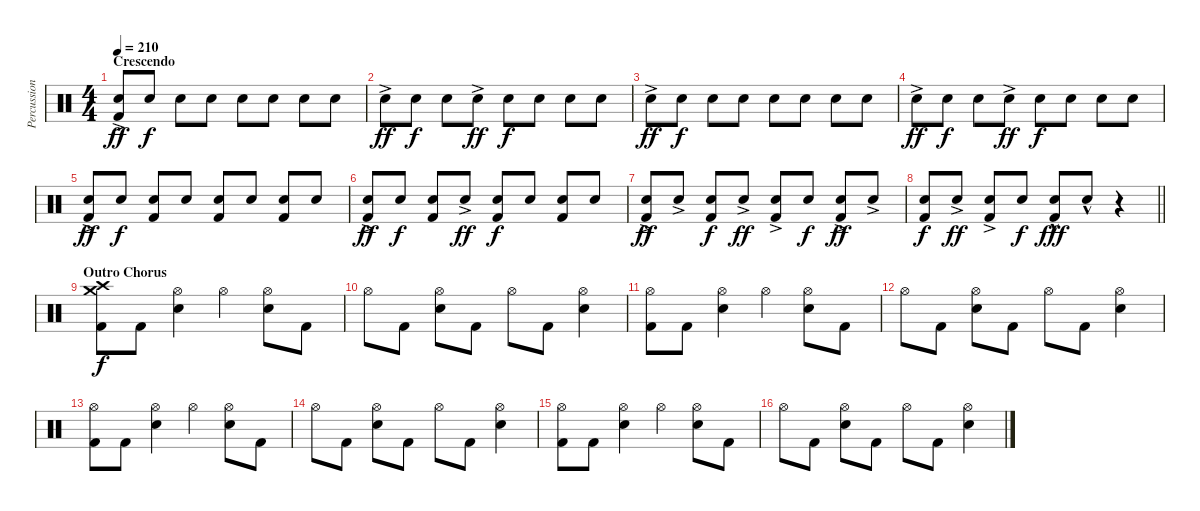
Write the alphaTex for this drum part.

\track ("Percussion" "Percussion") {instrument percussion}
\staff {score}
\articulation defaults
\ts (4 4)
\section ("" "Crescendo")
\tempo 210
\clef neutral
\ks c
("Electric Snare (hit)"{ac} "Kick (hit) 2").8{dy ff} "Electric Snare (hit)".8{dy f} "Electric Snare (hit)".8 "Electric Snare (hit)".8 "Electric Snare (hit)".8 "Electric Snare (hit)".8 "Electric Snare (hit)".8 "Electric Snare (hit)".8 |
"Electric Snare (hit)"{ac}.8{dy ff} "Electric Snare (hit)".8{dy f} "Electric Snare (hit)".8 "Electric Snare (hit)"{ac}.8{dy ff} "Electric Snare (hit)".8{dy f} "Electric Snare (hit)".8 "Electric Snare (hit)".8 "Electric Snare (hit)".8 |
"Electric Snare (hit)"{ac}.8{dy ff} "Electric Snare (hit)".8{dy f} "Electric Snare (hit)".8 "Electric Snare (hit)".8 "Electric Snare (hit)".8 "Electric Snare (hit)".8 "Electric Snare (hit)".8 "Electric Snare (hit)".8 |
"Electric Snare (hit)"{ac}.8{dy ff} "Electric Snare (hit)".8{dy f} "Electric Snare (hit)".8 "Electric Snare (hit)"{ac}.8{dy ff} "Electric Snare (hit)".8{dy f} "Electric Snare (hit)".8 "Electric Snare (hit)".8 "Electric Snare (hit)".8 |
("Electric Snare (hit)"{ac} "Kick (hit) 2").8{dy ff} "Electric Snare (hit)".8{dy f} ("Electric Snare (hit)" "Kick (hit) 2").8 "Electric Snare (hit)".8 ("Electric Snare (hit)" "Kick (hit) 2").8 "Electric Snare (hit)".8 ("Electric Snare (hit)" "Kick (hit) 2").8 "Electric Snare (hit)".8 |
("Electric Snare (hit)"{ac} "Kick (hit) 2").8{dy ff} "Electric Snare (hit)".8{dy f} ("Electric Snare (hit)" "Kick (hit) 2").8 "Electric Snare (hit)"{ac}.8{dy ff} ("Electric Snare (hit)" "Kick (hit) 2").8{dy f} "Electric Snare (hit)".8 ("Electric Snare (hit)" "Kick (hit) 2").8 "Electric Snare (hit)".8 |
("Electric Snare (hit)"{ac} "Kick (hit) 2").8{dy ff} "Electric Snare (hit)"{ac}.8 ("Electric Snare (hit)" "Kick (hit) 2").8{dy f} "Electric Snare (hit)"{ac}.8{dy ff} ("Electric Snare (hit)"{ac} "Kick (hit) 2").8 "Electric Snare (hit)".8{dy f} ("Electric Snare (hit)"{ac} "Kick (hit) 2").8{dy ff} "Electric Snare (hit)"{ac}.8 |
\barLineRight lightlight
("Electric Snare (hit)" "Kick (hit) 2").8{dy f} "Electric Snare (hit)"{ac}.8{dy ff} ("Electric Snare (hit)"{ac} "Kick (hit) 2").8 "Electric Snare (hit)".8{dy f} ("Electric Snare (hit)"{hac} "Kick (hit) 2").8{dy fff} "Electric Snare (hit)"{hac}.8 r.4 |
\section ("" "Outro Chorus")
("Crash medium (hit)" "Crash high (hit)" "Kick (hit) 2").8{dy f volume 14} "Kick (hit) 2".8 ("Hi-Hat (open)" "Electric Snare (hit)").4 "Hi-Hat (open)".4 ("Hi-Hat (open)" "Electric Snare (hit)").8 "Kick (hit) 2".8 |
"Hi-Hat (open)".8 "Kick (hit) 2".8 ("Hi-Hat (open)" "Electric Snare (hit)").8 "Kick (hit) 2".8 "Hi-Hat (open)".8 "Kick (hit) 2".8 ("Hi-Hat (open)" "Electric Snare (hit)").4 |
("Hi-Hat (open)" "Kick (hit) 2").8 "Kick (hit) 2".8 ("Hi-Hat (open)" "Electric Snare (hit)").4 "Hi-Hat (open)".4 ("Hi-Hat (open)" "Electric Snare (hit)").8 "Kick (hit) 2".8 |
"Hi-Hat (open)".8 "Kick (hit) 2".8 ("Hi-Hat (open)" "Electric Snare (hit)").8 "Kick (hit) 2".8 "Hi-Hat (open)".8 "Kick (hit) 2".8 ("Hi-Hat (open)" "Electric Snare (hit)").4 |
("Hi-Hat (open)" "Kick (hit) 2").8 "Kick (hit) 2".8 ("Hi-Hat (open)" "Electric Snare (hit)").4 "Hi-Hat (open)".4 ("Hi-Hat (open)" "Electric Snare (hit)").8 "Kick (hit) 2".8 |
"Hi-Hat (open)".8 "Kick (hit) 2".8 ("Hi-Hat (open)" "Electric Snare (hit)").8 "Kick (hit) 2".8 "Hi-Hat (open)".8 "Kick (hit) 2".8 ("Hi-Hat (open)" "Electric Snare (hit)").4 |
("Hi-Hat (open)" "Kick (hit) 2").8 "Kick (hit) 2".8 ("Hi-Hat (open)" "Electric Snare (hit)").4 "Hi-Hat (open)".4 ("Hi-Hat (open)" "Electric Snare (hit)").8 "Kick (hit) 2".8 |
"Hi-Hat (open)".8 "Kick (hit) 2".8 ("Hi-Hat (open)" "Electric Snare (hit)").8 "Kick (hit) 2".8 "Hi-Hat (open)".8 "Kick (hit) 2".8 ("Hi-Hat (open)" "Electric Snare (hit)").4
